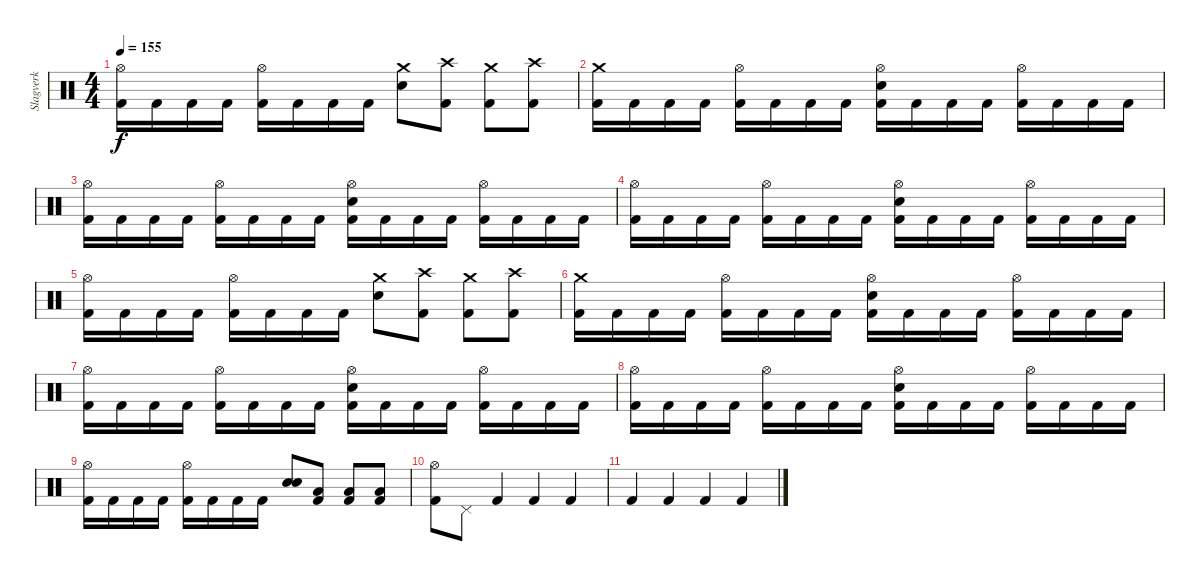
\track ("Slagverk" "Slagverk") {instrument percussion}
\staff {score}
\articulation defaults
\ts (4 4)
\tempo 155
\clef neutral
\ks c
("Hi-Hat (open)" "Kick (hit) 2").16{dy f} "Kick (hit) 2".16 "Kick (hit) 2".16 "Kick (hit) 2".16 ("Hi-Hat (open)" "Kick (hit) 2").16 "Kick (hit) 2".16 "Kick (hit) 2".16 "Kick (hit) 2".16 ("Crash medium (hit)" "Electric Snare (hit)").8 ("Crash high (hit)" "Kick (hit) 2").8 ("Crash medium (hit)" "Kick (hit) 2").8 ("Crash high (hit)" "Kick (hit) 2").8 |
("Crash medium (hit)" "Kick (hit) 2").16 "Kick (hit) 2".16 "Kick (hit) 2".16 "Kick (hit) 2".16 ("Hi-Hat (open)" "Kick (hit) 2").16 "Kick (hit) 2".16 "Kick (hit) 2".16 "Kick (hit) 2".16 ("Hi-Hat (open)" "Electric Snare (hit)" "Kick (hit) 2").16 "Kick (hit) 2".16 "Kick (hit) 2".16 "Kick (hit) 2".16 ("Hi-Hat (open)" "Kick (hit) 2").16 "Kick (hit) 2".16 "Kick (hit) 2".16 "Kick (hit) 2".16 |
("Hi-Hat (open)" "Kick (hit) 2").16 "Kick (hit) 2".16 "Kick (hit) 2".16 "Kick (hit) 2".16 ("Hi-Hat (open)" "Kick (hit) 2").16 "Kick (hit) 2".16 "Kick (hit) 2".16 "Kick (hit) 2".16 ("Hi-Hat (open)" "Electric Snare (hit)" "Kick (hit) 2").16 "Kick (hit) 2".16 "Kick (hit) 2".16 "Kick (hit) 2".16 ("Hi-Hat (open)" "Kick (hit) 2").16 "Kick (hit) 2".16 "Kick (hit) 2".16 "Kick (hit) 2".16 |
("Hi-Hat (open)" "Kick (hit) 2").16 "Kick (hit) 2".16 "Kick (hit) 2".16 "Kick (hit) 2".16 ("Hi-Hat (open)" "Kick (hit) 2").16 "Kick (hit) 2".16 "Kick (hit) 2".16 "Kick (hit) 2".16 ("Hi-Hat (open)" "Electric Snare (hit)" "Kick (hit) 2").16 "Kick (hit) 2".16 "Kick (hit) 2".16 "Kick (hit) 2".16 ("Hi-Hat (open)" "Kick (hit) 2").16 "Kick (hit) 2".16 "Kick (hit) 2".16 "Kick (hit) 2".16 |
("Hi-Hat (open)" "Kick (hit) 2").16 "Kick (hit) 2".16 "Kick (hit) 2".16 "Kick (hit) 2".16 ("Hi-Hat (open)" "Kick (hit) 2").16 "Kick (hit) 2".16 "Kick (hit) 2".16 "Kick (hit) 2".16 ("Crash medium (hit)" "Electric Snare (hit)").8 ("Crash high (hit)" "Kick (hit) 2").8 ("Crash medium (hit)" "Kick (hit) 2").8 ("Crash high (hit)" "Kick (hit) 2").8 |
("Crash medium (hit)" "Kick (hit) 2").16 "Kick (hit) 2".16 "Kick (hit) 2".16 "Kick (hit) 2".16 ("Hi-Hat (open)" "Kick (hit) 2").16 "Kick (hit) 2".16 "Kick (hit) 2".16 "Kick (hit) 2".16 ("Hi-Hat (open)" "Electric Snare (hit)" "Kick (hit) 2").16 "Kick (hit) 2".16 "Kick (hit) 2".16 "Kick (hit) 2".16 ("Hi-Hat (open)" "Kick (hit) 2").16 "Kick (hit) 2".16 "Kick (hit) 2".16 "Kick (hit) 2".16 |
("Hi-Hat (open)" "Kick (hit) 2").16 "Kick (hit) 2".16 "Kick (hit) 2".16 "Kick (hit) 2".16 ("Hi-Hat (open)" "Kick (hit) 2").16 "Kick (hit) 2".16 "Kick (hit) 2".16 "Kick (hit) 2".16 ("Hi-Hat (open)" "Electric Snare (hit)" "Kick (hit) 2").16 "Kick (hit) 2".16 "Kick (hit) 2".16 "Kick (hit) 2".16 ("Hi-Hat (open)" "Kick (hit) 2").16 "Kick (hit) 2".16 "Kick (hit) 2".16 "Kick (hit) 2".16 |
("Hi-Hat (open)" "Kick (hit) 2").16 "Kick (hit) 2".16 "Kick (hit) 2".16 "Kick (hit) 2".16 ("Hi-Hat (open)" "Kick (hit) 2").16 "Kick (hit) 2".16 "Kick (hit) 2".16 "Kick (hit) 2".16 ("Hi-Hat (open)" "Electric Snare (hit)" "Kick (hit) 2").16 "Kick (hit) 2".16 "Kick (hit) 2".16 "Kick (hit) 2".16 ("Hi-Hat (open)" "Kick (hit) 2").16 "Kick (hit) 2".16 "Kick (hit) 2".16 "Kick (hit) 2".16 |
("Hi-Hat (open)" "Kick (hit) 2").16 "Kick (hit) 2".16 "Kick (hit) 2".16 "Kick (hit) 2".16 ("Hi-Hat (open)" "Kick (hit) 2").16 "Kick (hit) 2".16 "Kick (hit) 2".16 "Kick (hit) 2".16 ("Electric Snare (hit)" "Snare (hit) 2").8 ("Low Floor Tom (hit)" "Kick (hit) 2").8 ("Low Floor Tom (hit)" "Kick (hit) 2").8 ("Low Floor Tom (hit)" "Kick (hit) 2").8 |
("Hi-Hat (open)" "Kick (hit) 2").8 "Pedal Hi-Hat (hit)".8 "Kick (hit) 2".4 "Kick (hit) 2".4 "Kick (hit) 2".4 |
"Kick (hit) 2".4 "Kick (hit) 2".4 "Kick (hit) 2".4 "Kick (hit) 2".4
